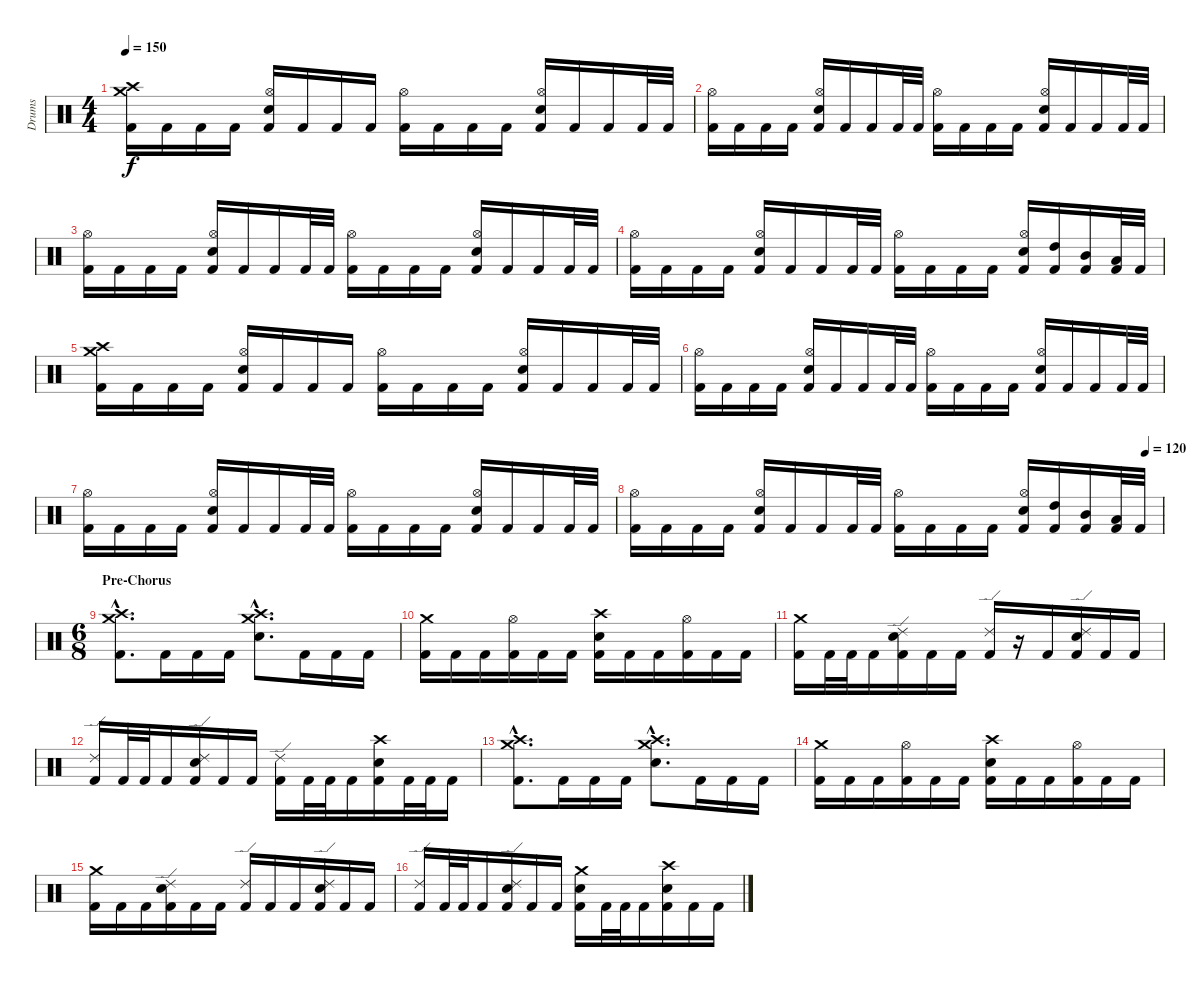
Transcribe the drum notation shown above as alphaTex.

\track ("Drums" "Drums") {instrument percussion}
\staff {score}
\articulation defaults
\ts (4 4)
\tempo 150
\clef neutral
\ks c
("Crash medium (hit)" "Crash high (hit)" "Kick (hit) 2").16{dy f} "Kick (hit) 2".16 "Kick (hit) 2".16 "Kick (hit) 2".16 ("Hi-Hat (open)" "Snare (hit) 2" "Kick (hit) 2").16 "Kick (hit) 2".16 "Kick (hit) 2".16 "Kick (hit) 2".16 ("Hi-Hat (open)" "Kick (hit) 2").16 "Kick (hit) 2".16 "Kick (hit) 2".16 "Kick (hit) 2".16 ("Hi-Hat (open)" "Snare (hit) 2" "Kick (hit) 2").16 "Kick (hit) 2".16 "Kick (hit) 2".16 "Kick (hit) 2".32 "Kick (hit) 2".32 |
("Hi-Hat (open)" "Kick (hit) 2").16 "Kick (hit) 2".16 "Kick (hit) 2".16 "Kick (hit) 2".16 ("Hi-Hat (open)" "Snare (hit) 2" "Kick (hit) 2").16 "Kick (hit) 2".16 "Kick (hit) 2".16 "Kick (hit) 2".32 "Kick (hit) 2".32 ("Hi-Hat (open)" "Kick (hit) 2").16 "Kick (hit) 2".16 "Kick (hit) 2".16 "Kick (hit) 2".16 ("Hi-Hat (open)" "Snare (hit) 2" "Kick (hit) 2").16 "Kick (hit) 2".16 "Kick (hit) 2".16 "Kick (hit) 2".32 "Kick (hit) 2".32 |
("Hi-Hat (open)" "Kick (hit) 2").16 "Kick (hit) 2".16 "Kick (hit) 2".16 "Kick (hit) 2".16 ("Hi-Hat (open)" "Snare (hit) 2" "Kick (hit) 2").16 "Kick (hit) 2".16 "Kick (hit) 2".16 "Kick (hit) 2".32 "Kick (hit) 2".32 ("Hi-Hat (open)" "Kick (hit) 2").16 "Kick (hit) 2".16 "Kick (hit) 2".16 "Kick (hit) 2".16 ("Hi-Hat (open)" "Snare (hit) 2" "Kick (hit) 2").16 "Kick (hit) 2".16 "Kick (hit) 2".16 "Kick (hit) 2".32 "Kick (hit) 2".32 |
("Hi-Hat (open)" "Kick (hit) 2").16 "Kick (hit) 2".16 "Kick (hit) 2".16 "Kick (hit) 2".16 ("Hi-Hat (open)" "Snare (hit) 2" "Kick (hit) 2").16 "Kick (hit) 2".16 "Kick (hit) 2".16 "Kick (hit) 2".32 "Kick (hit) 2".32 ("Hi-Hat (open)" "Kick (hit) 2").16 "Kick (hit) 2".16 "Kick (hit) 2".16 "Kick (hit) 2".16 ("Hi-Hat (open)" "Snare (hit) 2" "Kick (hit) 2").16 ("High Tom (hit)" "Kick (hit) 2").16 ("Mid Tom (hit)" "Kick (hit) 2").16 ("Low Tom (hit)" "Kick (hit) 2").32 "Kick (hit) 2".32 |
("Crash medium (hit)" "Crash high (hit)" "Kick (hit) 2").16 "Kick (hit) 2".16 "Kick (hit) 2".16 "Kick (hit) 2".16 ("Hi-Hat (open)" "Snare (hit) 2" "Kick (hit) 2").16 "Kick (hit) 2".16 "Kick (hit) 2".16 "Kick (hit) 2".16 ("Hi-Hat (open)" "Kick (hit) 2").16 "Kick (hit) 2".16 "Kick (hit) 2".16 "Kick (hit) 2".16 ("Hi-Hat (open)" "Snare (hit) 2" "Kick (hit) 2").16 "Kick (hit) 2".16 "Kick (hit) 2".16 "Kick (hit) 2".32 "Kick (hit) 2".32 |
("Hi-Hat (open)" "Kick (hit) 2").16 "Kick (hit) 2".16 "Kick (hit) 2".16 "Kick (hit) 2".16 ("Hi-Hat (open)" "Snare (hit) 2" "Kick (hit) 2").16 "Kick (hit) 2".16 "Kick (hit) 2".16 "Kick (hit) 2".32 "Kick (hit) 2".32 ("Hi-Hat (open)" "Kick (hit) 2").16 "Kick (hit) 2".16 "Kick (hit) 2".16 "Kick (hit) 2".16 ("Hi-Hat (open)" "Snare (hit) 2" "Kick (hit) 2").16 "Kick (hit) 2".16 "Kick (hit) 2".16 "Kick (hit) 2".32 "Kick (hit) 2".32 |
("Hi-Hat (open)" "Kick (hit) 2").16 "Kick (hit) 2".16 "Kick (hit) 2".16 "Kick (hit) 2".16 ("Hi-Hat (open)" "Snare (hit) 2" "Kick (hit) 2").16 "Kick (hit) 2".16 "Kick (hit) 2".16 "Kick (hit) 2".32 "Kick (hit) 2".32 ("Hi-Hat (open)" "Kick (hit) 2").16 "Kick (hit) 2".16 "Kick (hit) 2".16 "Kick (hit) 2".16 ("Hi-Hat (open)" "Snare (hit) 2" "Kick (hit) 2").16 "Kick (hit) 2".16 "Kick (hit) 2".16 "Kick (hit) 2".32 "Kick (hit) 2".32 |
\tempo (120 0.96875)
("Hi-Hat (open)" "Kick (hit) 2").16 "Kick (hit) 2".16 "Kick (hit) 2".16 "Kick (hit) 2".16 ("Hi-Hat (open)" "Snare (hit) 2" "Kick (hit) 2").16 "Kick (hit) 2".16 "Kick (hit) 2".16 "Kick (hit) 2".32 "Kick (hit) 2".32 ("Hi-Hat (open)" "Kick (hit) 2").16 "Kick (hit) 2".16 "Kick (hit) 2".16 "Kick (hit) 2".16 ("Hi-Hat (open)" "Snare (hit) 2" "Kick (hit) 2").16 ("High Tom (hit)" "Kick (hit) 2").16 ("Mid Tom (hit)" "Kick (hit) 2").16 ("Low Tom (hit)" "Kick (hit) 2").32 "Kick (hit) 2".32 |
\ts (6 8)
\section ("" "Pre-Chorus")
("Crash medium (hit)"{hac} "Crash high (hit)"{hac} "Kick (hit) 2"{hac}).8{d} "Kick (hit) 2".16 "Kick (hit) 2".16 "Kick (hit) 2".16 ("Crash high (hit)"{hac} "Crash medium (hit)"{hac} "Snare (hit) 2"{hac}).8{d} "Kick (hit) 2".16 "Kick (hit) 2".16 "Kick (hit) 2".16 |
("Crash medium (hit)" "Kick (hit) 2").16 "Kick (hit) 2".16 "Kick (hit) 2".16 ("Hi-Hat (open)" "Kick (hit) 2").16 "Kick (hit) 2".16 "Kick (hit) 2".16 ("Crash high (hit)" "Snare (hit) 2" "Kick (hit) 2").16 "Kick (hit) 2".16 "Kick (hit) 2".16 ("Hi-Hat (open)" "Kick (hit) 2").16 "Kick (hit) 2".16 "Kick (hit) 2".16 |
("Crash medium (hit)" "Kick (hit) 2").16 "Kick (hit) 2".32 "Kick (hit) 2".32 "Kick (hit) 2".16 ("Ride (edge) 2" "Snare (hit) 2" "Kick (hit) 2").16 "Kick (hit) 2".16 "Kick (hit) 2".16 ("Ride (edge) 2" "Kick (hit) 2").16 r.16 "Kick (hit) 2".16 ("Ride (edge) 2" "Snare (hit) 2" "Kick (hit) 2").16 "Kick (hit) 2".16 "Kick (hit) 2".16 |
("Ride (edge) 2" "Kick (hit) 2").16 "Kick (hit) 2".32 "Kick (hit) 2".32 "Kick (hit) 2".16 ("Ride (edge) 2" "Snare (hit) 2" "Kick (hit) 2").16 "Kick (hit) 2".16 "Kick (hit) 2".16 ("Ride (edge) 2" "Kick (hit) 2").16 "Kick (hit) 2".32 "Kick (hit) 2".32 "Kick (hit) 2".16 ("Crash high (hit)" "Snare (hit) 2" "Kick (hit) 2").16 "Kick (hit) 2".32 "Kick (hit) 2".32 "Kick (hit) 2".16 |
("Crash medium (hit)"{hac} "Crash high (hit)"{hac} "Kick (hit) 2"{hac}).8{d} "Kick (hit) 2".16 "Kick (hit) 2".16 "Kick (hit) 2".16 ("Crash high (hit)"{hac} "Crash medium (hit)"{hac} "Snare (hit) 2"{hac}).8{d} "Kick (hit) 2".16 "Kick (hit) 2".16 "Kick (hit) 2".16 |
("Crash medium (hit)" "Kick (hit) 2").16 "Kick (hit) 2".16 "Kick (hit) 2".16 ("Hi-Hat (open)" "Kick (hit) 2").16 "Kick (hit) 2".16 "Kick (hit) 2".16 ("Crash high (hit)" "Snare (hit) 2" "Kick (hit) 2").16 "Kick (hit) 2".16 "Kick (hit) 2".16 ("Hi-Hat (open)" "Kick (hit) 2").16 "Kick (hit) 2".16 "Kick (hit) 2".16 |
("Crash medium (hit)" "Kick (hit) 2").16 "Kick (hit) 2".16 "Kick (hit) 2".16 ("Ride (edge) 2" "Snare (hit) 2" "Kick (hit) 2").16 "Kick (hit) 2".16 "Kick (hit) 2".16 ("Ride (edge) 2" "Kick (hit) 2").16 "Kick (hit) 2".16 "Kick (hit) 2".16 ("Ride (edge) 2" "Snare (hit) 2" "Kick (hit) 2").16 "Kick (hit) 2".16 "Kick (hit) 2".16 |
("Ride (edge) 2" "Kick (hit) 2").16 "Kick (hit) 2".32 "Kick (hit) 2".32 "Kick (hit) 2".16 ("Ride (edge) 2" "Snare (hit) 2" "Kick (hit) 2").16 "Kick (hit) 2".16 "Kick (hit) 2".16 ("Crash medium (hit)" "Snare (hit) 2" "Kick (hit) 2").16 "Kick (hit) 2".32 "Kick (hit) 2".32 "Kick (hit) 2".16 ("Crash high (hit)" "Snare (hit) 2" "Kick (hit) 2").16 "Kick (hit) 2".16 "Kick (hit) 2".16
